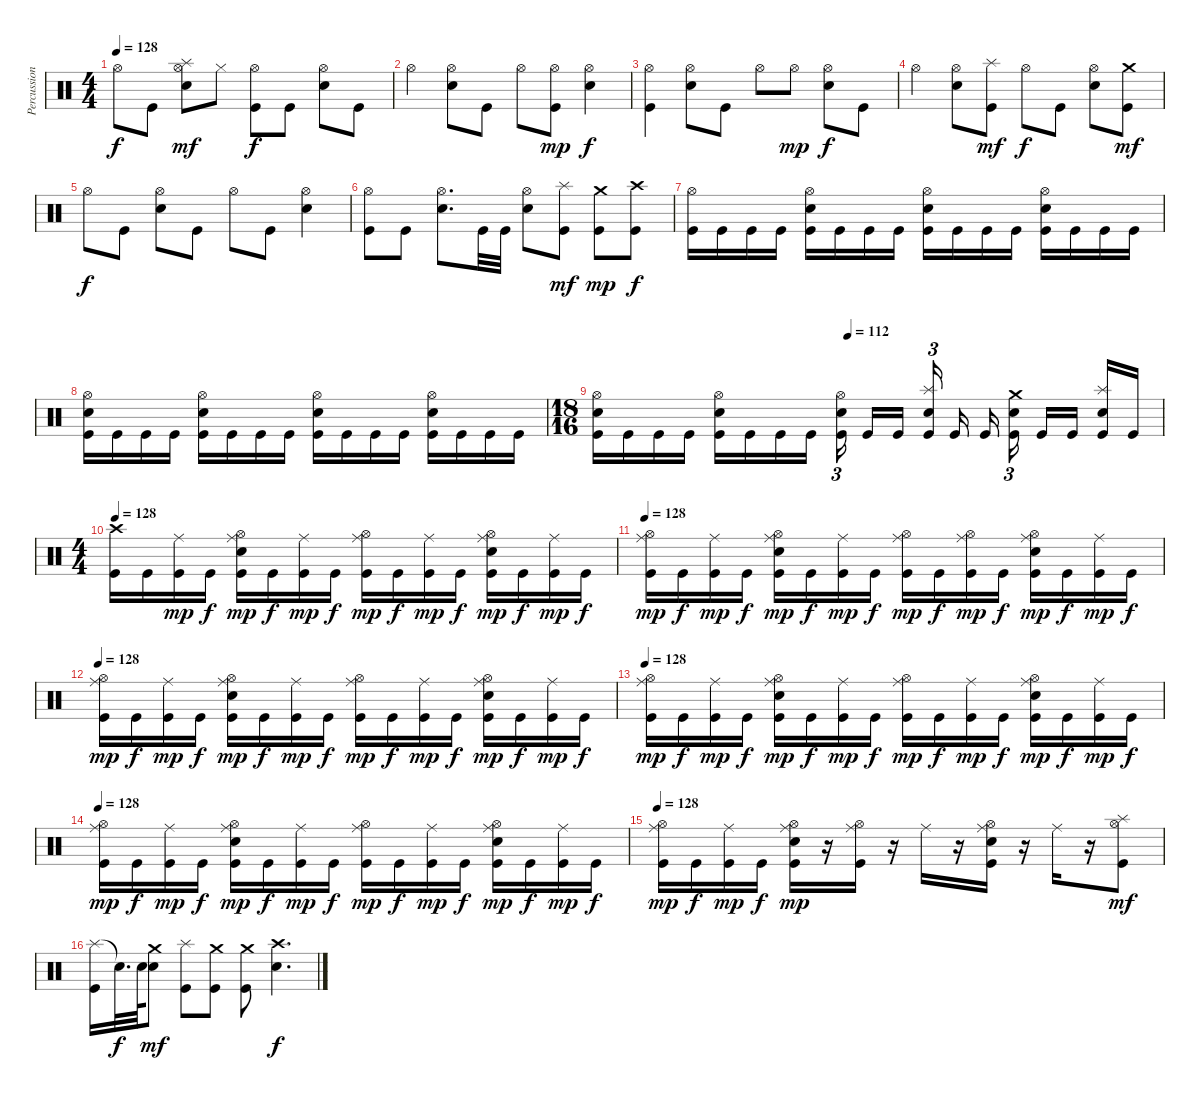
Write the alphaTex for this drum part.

\track ("Percussioni" "Percussion") {instrument percussion}
\staff {score}
\articulation defaults
\ts (4 4)
\tempo 128
\clef neutral
\ks c "Hi-Hat (open)".8{dy f} "Kick (hit)".8
("Splash (hit)" "Hi-Hat (open)" "Snare (hit) 2").8{dy mf} "Hi-Hat (closed)".8 ("Hi-Hat (open)" "Kick (hit)").8{dy f} "Kick (hit)".8 ("Hi-Hat (open)" "Snare (hit) 2").8 "Kick (hit)".8 |
"Hi-Hat (open)".4 ("Hi-Hat (open)" "Snare (hit) 2").8 "Kick (hit)".8 "Hi-Hat (open)".8 ("Hi-Hat (open)" "Kick (hit)").8{dy mp} ("Hi-Hat (open)" "Snare (hit) 2").4{dy f} |
("Hi-Hat (open)" "Kick (hit)").4 ("Hi-Hat (open)" "Snare (hit) 2").8 "Kick (hit)".8 "Hi-Hat (open)".8 "Hi-Hat (open)".8{dy mp} ("Hi-Hat (open)" "Snare (hit) 2").8{dy f} "Kick (hit)".8 |
"Hi-Hat (open)".4 ("Hi-Hat (open)" "Snare (hit) 2").8 ("Splash (hit)" "Kick (hit)").8{dy mf} "Hi-Hat (open)".8{dy f} "Kick (hit)".8 ("Hi-Hat (open)" "Snare (hit) 2").8 ("Crash medium (hit)" "Kick (hit)").8{dy mf} |
"Hi-Hat (open)".8{dy f} "Kick (hit)".8 ("Hi-Hat (open)" "Snare (hit) 2").8 "Kick (hit)".8 "Hi-Hat (open)".8 "Kick (hit)".8 ("Hi-Hat (open)" "Snare (hit) 2").4 |
("Hi-Hat (open)" "Kick (hit)").8 "Kick (hit)".8 ("Hi-Hat (open)" "Snare (hit) 2").8{d} "Kick (hit)".32 "Kick (hit)".32 ("Hi-Hat (open)" "Snare (hit) 2").8 ("Splash (hit)" "Kick (hit)").8{dy mf} ("Crash medium (hit)" "Kick (hit)").8{dy mp} ("Crash high (hit)" "Kick (hit)").8{dy f} |
("Hi-Hat (open)" "Kick (hit)").16 "Kick (hit)".16 "Kick (hit)".16 "Kick (hit)".16 ("Hi-Hat (open)" "Snare (hit) 2" "Kick (hit)").16 "Kick (hit)".16 "Kick (hit)".16 "Kick (hit)".16 ("Hi-Hat (open)" "Snare (hit) 2" "Kick (hit)").16 "Kick (hit)".16 "Kick (hit)".16 "Kick (hit)".16 ("Hi-Hat (open)" "Snare (hit) 2" "Kick (hit)").16 "Kick (hit)".16 "Kick (hit)".16 "Kick (hit)".16 |
("Hi-Hat (open)" "Snare (hit) 2" "Kick (hit)").16 "Kick (hit)".16 "Kick (hit)".16 "Kick (hit)".16 ("Hi-Hat (open)" "Snare (hit) 2" "Kick (hit)").16 "Kick (hit)".16 "Kick (hit)".16 "Kick (hit)".16 ("Hi-Hat (open)" "Snare (hit) 2" "Kick (hit)").16 "Kick (hit)".16 "Kick (hit)".16 "Kick (hit)".16 ("Hi-Hat (open)" "Snare (hit) 2" "Kick (hit)").16 "Kick (hit)".16 "Kick (hit)".16 "Kick (hit)".16 |
\ts (18 16)
\tempo (112 0.4444444444444444)
("Hi-Hat (open)" "Snare (hit) 2" "Kick (hit)").16 "Kick (hit)".16 "Kick (hit)".16 "Kick (hit)".16 ("Hi-Hat (open)" "Snare (hit) 2" "Kick (hit)").16 "Kick (hit)".16 "Kick (hit)".16 "Kick (hit)".16{beam splitsecondary} ("Hi-Hat (open)" "Snare (hit) 2" "Kick (hit)").16{tu (3 2)} "Kick (hit)".16 "Kick (hit)".16{beam splitsecondary} ("Splash (hit)" "Snare (hit) 2" "Kick (hit)").16{tu (3 2)} "Kick (hit)".16 "Kick (hit)".16{beam splitsecondary} ("Crash medium (hit)" "Snare (hit) 2" "Kick (hit)").16{tu (3 2)} "Kick (hit)".16 "Kick (hit)".16 ("Splash (hit)" "Snare (hit) 2" "Kick (hit)").16 "Kick (hit)".16 |
\ts (4 4)
\tempo 128
("Crash high (hit)" "Kick (hit)").16 "Kick (hit)".16 ("Ride (middle)" "Kick (hit)").16{dy mp} "Kick (hit)".16{dy f} ("Ride (middle)" "Hi-Hat (open)" "Snare (hit) 2" "Kick (hit)").16{dy mp} "Kick (hit)".16{dy f} ("Ride (middle)" "Kick (hit)").16{dy mp} "Kick (hit)".16{dy f} ("Ride (middle)" "Hi-Hat (open)" "Kick (hit)").16{dy mp} "Kick (hit)".16{dy f} ("Ride (middle)" "Kick (hit)").16{dy mp} "Kick (hit)".16{dy f} ("Ride (middle)" "Hi-Hat (open)" "Snare (hit) 2" "Kick (hit)").16{dy mp} "Kick (hit)".16{dy f} ("Ride (middle)" "Kick (hit)").16{dy mp} "Kick (hit)".16{dy f} |
\tempo 128
("Ride (middle)" "Hi-Hat (open)" "Kick (hit)").16{dy mp} "Kick (hit)".16{dy f} ("Ride (middle)" "Kick (hit)").16{dy mp} "Kick (hit)".16{dy f} ("Ride (middle)" "Hi-Hat (open)" "Snare (hit) 2" "Kick (hit)").16{dy mp} "Kick (hit)".16{dy f} ("Ride (middle)" "Kick (hit)").16{dy mp} "Kick (hit)".16{dy f} ("Ride (middle)" "Hi-Hat (open)" "Kick (hit)").16{dy mp} "Kick (hit)".16{dy f} ("Ride (middle)" "Hi-Hat (open)" "Kick (hit)").16{dy mp} "Kick (hit)".16{dy f} ("Ride (middle)" "Hi-Hat (open)" "Snare (hit) 2" "Kick (hit)").16{dy mp} "Kick (hit)".16{dy f} ("Ride (middle)" "Kick (hit)").16{dy mp} "Kick (hit)".16{dy f} |
\tempo 128
("Ride (middle)" "Hi-Hat (open)" "Kick (hit)").16{dy mp} "Kick (hit)".16{dy f} ("Ride (middle)" "Kick (hit)").16{dy mp} "Kick (hit)".16{dy f} ("Ride (middle)" "Hi-Hat (open)" "Snare (hit) 2" "Kick (hit)").16{dy mp} "Kick (hit)".16{dy f} ("Ride (middle)" "Kick (hit)").16{dy mp} "Kick (hit)".16{dy f} ("Ride (middle)" "Hi-Hat (open)" "Kick (hit)").16{dy mp} "Kick (hit)".16{dy f} ("Ride (middle)" "Kick (hit)").16{dy mp} "Kick (hit)".16{dy f} ("Ride (middle)" "Hi-Hat (open)" "Snare (hit) 2" "Kick (hit)").16{dy mp} "Kick (hit)".16{dy f} ("Ride (middle)" "Kick (hit)").16{dy mp} "Kick (hit)".16{dy f} |
\tempo 128
("Ride (middle)" "Hi-Hat (open)" "Kick (hit)").16{dy mp} "Kick (hit)".16{dy f} ("Ride (middle)" "Kick (hit)").16{dy mp} "Kick (hit)".16{dy f} ("Ride (middle)" "Hi-Hat (open)" "Snare (hit) 2" "Kick (hit)").16{dy mp} "Kick (hit)".16{dy f} ("Ride (middle)" "Kick (hit)").16{dy mp} "Kick (hit)".16{dy f} ("Ride (middle)" "Hi-Hat (open)" "Kick (hit)").16{dy mp} "Kick (hit)".16{dy f} ("Ride (middle)" "Kick (hit)").16{dy mp} "Kick (hit)".16{dy f} ("Ride (middle)" "Hi-Hat (open)" "Snare (hit) 2" "Kick (hit)").16{dy mp} "Kick (hit)".16{dy f} ("Ride (middle)" "Kick (hit)").16{dy mp} "Kick (hit)".16{dy f} |
\tempo 128
("Ride (middle)" "Hi-Hat (open)" "Kick (hit)").16{dy mp} "Kick (hit)".16{dy f} ("Ride (middle)" "Kick (hit)").16{dy mp} "Kick (hit)".16{dy f} ("Ride (middle)" "Hi-Hat (open)" "Snare (hit) 2" "Kick (hit)").16{dy mp} "Kick (hit)".16{dy f} ("Ride (middle)" "Kick (hit)").16{dy mp} "Kick (hit)".16{dy f} ("Ride (middle)" "Hi-Hat (open)" "Kick (hit)").16{dy mp} "Kick (hit)".16{dy f} ("Ride (middle)" "Kick (hit)").16{dy mp} "Kick (hit)".16{dy f} ("Ride (middle)" "Hi-Hat (open)" "Snare (hit) 2" "Kick (hit)").16{dy mp} "Kick (hit)".16{dy f} ("Ride (middle)" "Kick (hit)").16{dy mp} "Kick (hit)".16{dy f} |
\tempo 128
("Ride (middle)" "Hi-Hat (open)" "Kick (hit)").16{dy mp} "Kick (hit)".16{dy f} ("Ride (middle)" "Kick (hit)").16{dy mp} "Kick (hit)".16{dy f} ("Ride (middle)" "Hi-Hat (open)" "Snare (hit) 2" "Kick (hit)").16{dy mp} r.16 ("Ride (middle)" "Hi-Hat (open)" "Kick (hit)").16 r.16 "Ride (middle)".16 r.16 ("Ride (middle)" "Hi-Hat (open)" "Snare (hit) 2" "Kick (hit)").16 r.16 "Ride (middle)".16 r.16 ("Splash (hit)" "Hi-Hat (open)" "Kick (hit)").8{dy mf} |
("Splash (hit)" "Kick (hit)").16 "Snare (hit)"{t}.32{d dy f} "Snare (hit) 2".64 ("Crash medium (hit)" "Snare (hit) 2").8{dy mf} ("Splash (hit)" "Kick (hit)").8 ("Crash medium (hit)" "Kick (hit)").8 ("Crash medium (hit)" "Kick (hit)").8 ("Crash high (hit)" "Snare (hit) 2").4{d dy f}
